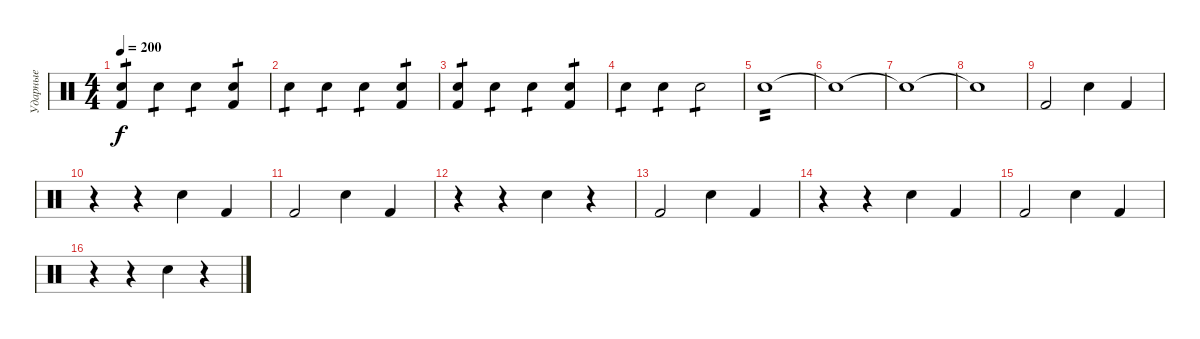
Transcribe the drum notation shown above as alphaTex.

\track ("Ударные" "Ударные") {instrument percussion}
\staff {score}
\articulation defaults
\ts (4 4)
\tempo 200
\clef neutral
\ks c
("Kick (hit) 2" "Snare (hit) 2").4{tp 1 dy f} "Snare (hit) 2".4{tp 1} "Snare (hit) 2".4{tp 1} ("Kick (hit) 2" "Snare (hit) 2").4{tp 1} |
"Snare (hit) 2".4{tp 1} "Snare (hit) 2".4{tp 1} "Snare (hit) 2".4{tp 1} ("Kick (hit) 2" "Snare (hit) 2").4{tp 1} |
("Kick (hit) 2" "Snare (hit) 2").4{tp 1} "Snare (hit) 2".4{tp 1} "Snare (hit) 2".4{tp 1} ("Kick (hit) 2" "Snare (hit) 2").4{tp 1} |
"Snare (hit) 2".4{tp 1} "Snare (hit) 2".4{tp 1} "Snare (hit) 2".2{tp 1} |
"Snare (hit) 2".1{tp 2 volume 8} |
"Snare (hit) 2"{t}.1{volume 13} |
"Snare (hit)"{t}.1 |
"Snare (hit)"{t}.1 |
"Kick (hit) 2".2 "Snare (hit) 2".4 "Kick (hit) 2".4 |
r.4 r.4 "Snare (hit) 2".4 "Kick (hit) 2".4 |
"Kick (hit) 2".2 "Snare (hit) 2".4 "Kick (hit) 2".4 |
r.4 r.4 "Snare (hit) 2".4 r.4 |
"Kick (hit) 2".2 "Snare (hit) 2".4 "Kick (hit) 2".4 |
r.4 r.4 "Snare (hit) 2".4 "Kick (hit) 2".4 |
"Kick (hit) 2".2 "Snare (hit) 2".4 "Kick (hit) 2".4 |
r.4 r.4 "Snare (hit) 2".4 r.4
